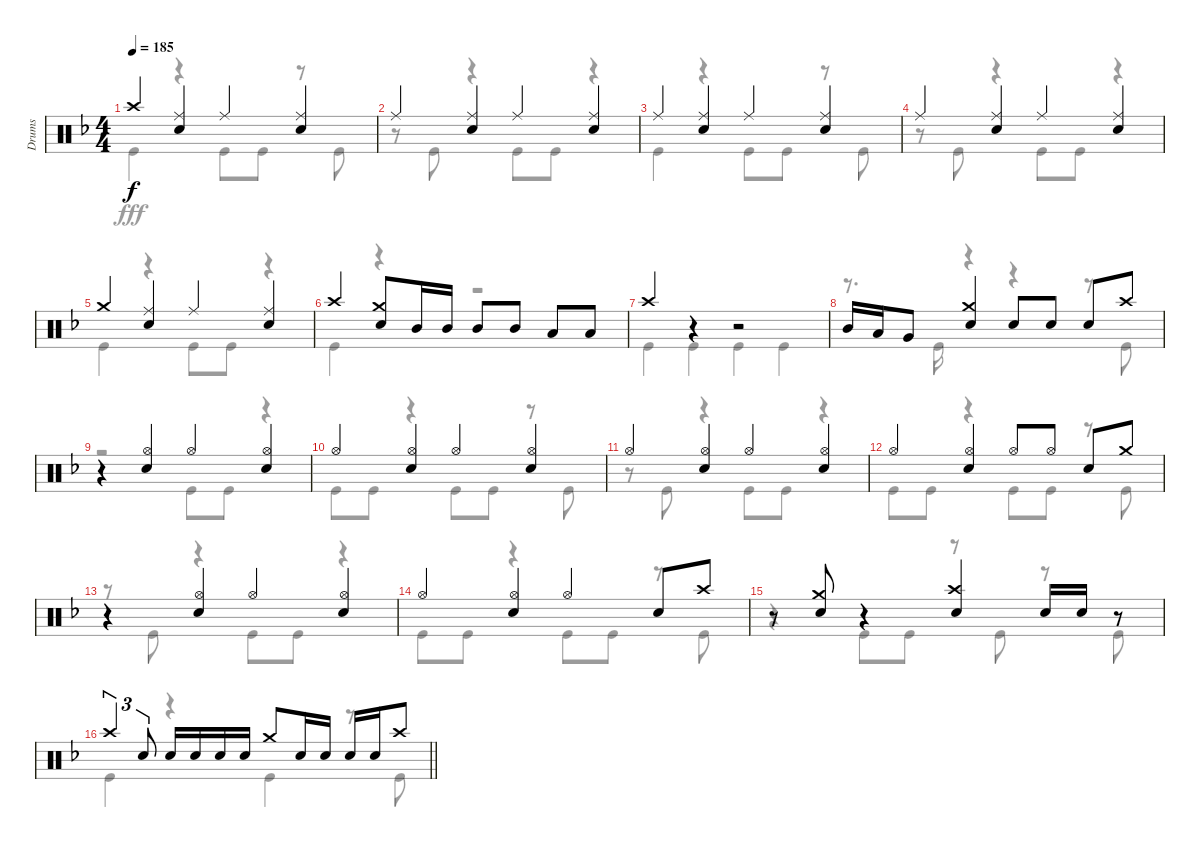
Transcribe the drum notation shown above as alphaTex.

\track ("Drums" "Drums") {instrument percussion}
\staff {score}
\articulation defaults
\voice
\ts (4 4)
\tempo 185
\clef neutral
\ks f "Crash high (hit)".4{dy f}
("Ride (middle)" "Snare (hit) 2").4 "Ride (middle)".4 ("Ride (middle)" "Snare (hit) 2").4 |
"Ride (middle)".4 ("Ride (middle)" "Snare (hit) 2").4 "Ride (middle)".4 ("Ride (middle)" "Snare (hit) 2").4 |
"Ride (middle)".4 ("Ride (middle)" "Snare (hit) 2").4 "Ride (middle)".4 ("Ride (middle)" "Snare (hit) 2").4 |
"Ride (middle)".4 ("Ride (middle)" "Snare (hit) 2").4 "Ride (middle)".4 ("Ride (middle)" "Snare (hit) 2").4 |
"Crash medium (hit)".4 ("Ride (middle)" "Snare (hit) 2").4 "Ride (middle)".4 ("Ride (middle)" "Snare (hit) 2").4 |
"Crash high (hit)".4 ("Crash medium (hit)" "Snare (hit) 2").8 "Mid Tom (hit)".16 "Mid Tom (hit)".16 "Mid Tom (hit)".8 "Mid Tom (hit)".8 "Low Tom (hit)".8 "Low Tom (hit)".8 |
"Crash high (hit)".4 r.4 r.2 |
"Mid Tom (hit)".16 "Low Tom (hit)".16 "Very Low Tom (hit)".8 ("Crash medium (hit)" "Snare (hit) 2").4 "Snare (hit) 2".8 "Snare (hit) 2".8 "Snare (hit) 2".8 "Crash high (hit)".8 |
r.4 ("Hi-Hat (open)" "Snare (hit) 2").4 "Hi-Hat (open)".4 ("Hi-Hat (open)" "Snare (hit) 2").4 |
"Hi-Hat (open)".4 ("Hi-Hat (open)" "Snare (hit) 2").4 "Hi-Hat (open)".4 ("Hi-Hat (open)" "Snare (hit) 2").4 |
"Hi-Hat (open)".4 ("Hi-Hat (open)" "Snare (hit) 2").4 "Hi-Hat (open)".4 ("Hi-Hat (open)" "Snare (hit) 2").4 |
"Hi-Hat (open)".4 ("Hi-Hat (open)" "Snare (hit) 2").4 "Hi-Hat (open)".8 "Hi-Hat (open)".8 "Snare (hit) 2".8 "Crash medium (hit)".8 |
r.4 ("Hi-Hat (open)" "Snare (hit) 2").4 "Hi-Hat (open)".4 ("Hi-Hat (open)" "Snare (hit) 2").4 |
"Hi-Hat (open)".4 ("Hi-Hat (open)" "Snare (hit) 2").4 "Hi-Hat (open)".4 "Snare (hit) 2".8 "Crash high (hit)".8 |
r.8 ("Crash medium (hit)" "Snare (hit) 2").8 r.4 ("Crash high (hit)" "Snare (hit) 2").4 "Snare (hit) 2".16 "Snare (hit) 2".16 r.8 |
\barLineRight lightlight "Crash high (hit)".4{tu (3 2)} "Snare (hit) 2".8{tu (3 2)} "Snare (hit) 2".16 "Snare (hit) 2".16 "Snare (hit) 2".16 "Snare (hit) 2".16 "Crash medium (hit)".8 "Snare (hit) 2".16 "Snare (hit) 2".16 "Snare (hit) 2".16 "Snare (hit) 2".16 "Crash high (hit)".8
\voice
\clef neutral
\ottava regular
\simile none
\ks f "Kick (hit)".4{dy fff}
r.4 "Kick (hit)".8 "Kick (hit)".8 r.8 "Kick (hit)".8 |
r.8 "Kick (hit)".8 r.4 "Kick (hit)".8 "Kick (hit)".8 r.4 |
"Kick (hit)".4 r.4 "Kick (hit)".8 "Kick (hit)".8 r.8 "Kick (hit)".8 |
r.8 "Kick (hit)".8 r.4 "Kick (hit)".8 "Kick (hit)".8 r.4 |
"Kick (hit)".4 r.4 "Kick (hit)".8 "Kick (hit)".8 r.4 |
"Kick (hit)".4 r.4 r.2 |
"Kick (hit)".4 "Kick (hit)".4 "Kick (hit)".4 "Kick (hit)".4 |
r.8{d} "Kick (hit)".16 r.4 r.4 r.8 "Kick (hit)".8 |
r.2 "Kick (hit)".8 "Kick (hit)".8 r.4 |
"Kick (hit)".8 "Kick (hit)".8 r.4 "Kick (hit)".8 "Kick (hit)".8 r.8 "Kick (hit)".8 |
r.8 "Kick (hit)".8 r.4 "Kick (hit)".8 "Kick (hit)".8 r.4 |
"Kick (hit)".8 "Kick (hit)".8 r.4 "Kick (hit)".8 "Kick (hit)".8 r.8 "Kick (hit)".8 |
r.8 "Kick (hit)".8 r.4 "Kick (hit)".8 "Kick (hit)".8 r.4 |
"Kick (hit)".8 "Kick (hit)".8 r.4 "Kick (hit)".8 "Kick (hit)".8 r.8 "Kick (hit)".8 |
r.4 "Kick (hit)".8 "Kick (hit)".8 r.8 "Kick (hit)".8 r.8 "Kick (hit)".8 |
\barLineRight lightlight "Kick (hit)".4
r.4 "Kick (hit)".4 r.8 "Kick (hit)".8
